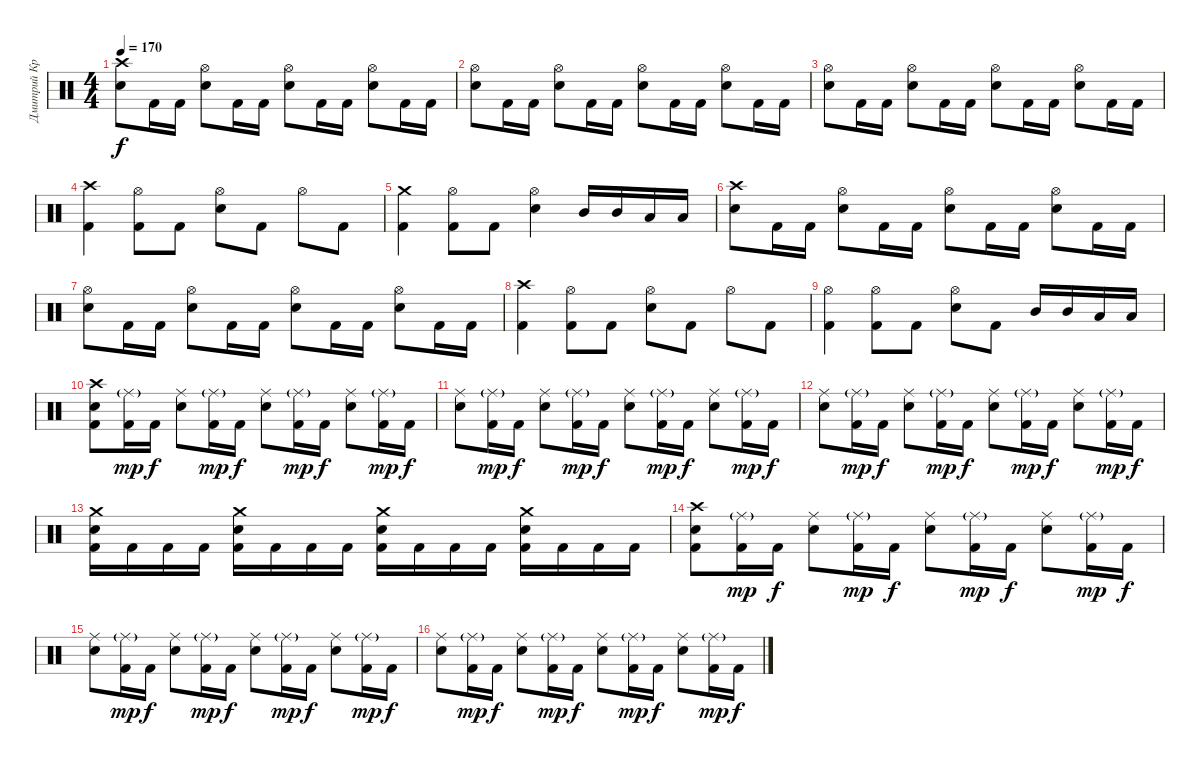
\track ("Дмитрий Кривенков" "Дмитрий Кр") {instrument percussion}
\staff {score}
\articulation defaults
\ts (4 4)
\tempo 170
\clef neutral
\ks c
("Crash high (hit)" "Electric Snare (hit)").8{dy f} "Kick (hit) 2".16 "Kick (hit) 2".16 ("Hi-Hat (open)" "Electric Snare (hit)").8 "Kick (hit) 2".16 "Kick (hit) 2".16 ("Hi-Hat (open)" "Electric Snare (hit)").8 "Kick (hit) 2".16 "Kick (hit) 2".16 ("Hi-Hat (open)" "Electric Snare (hit)").8 "Kick (hit) 2".16 "Kick (hit) 2".16 |
("Hi-Hat (open)" "Electric Snare (hit)").8 "Kick (hit) 2".16 "Kick (hit) 2".16 ("Hi-Hat (open)" "Electric Snare (hit)").8 "Kick (hit) 2".16 "Kick (hit) 2".16 ("Hi-Hat (open)" "Electric Snare (hit)").8 "Kick (hit) 2".16 "Kick (hit) 2".16 ("Hi-Hat (open)" "Electric Snare (hit)").8 "Kick (hit) 2".16 "Kick (hit) 2".16 |
("Hi-Hat (open)" "Electric Snare (hit)").8 "Kick (hit) 2".16 "Kick (hit) 2".16 ("Hi-Hat (open)" "Electric Snare (hit)").8 "Kick (hit) 2".16 "Kick (hit) 2".16 ("Hi-Hat (open)" "Electric Snare (hit)").8 "Kick (hit) 2".16 "Kick (hit) 2".16 ("Hi-Hat (open)" "Electric Snare (hit)").8 "Kick (hit) 2".16 "Kick (hit) 2".16 |
("Crash high (hit)" "Kick (hit) 2").4 ("Hi-Hat (open)" "Kick (hit) 2").8 "Kick (hit) 2".8 ("Hi-Hat (open)" "Electric Snare (hit)").8 "Kick (hit) 2".8 "Hi-Hat (open)".8 "Kick (hit) 2".8 |
("Crash medium (hit)" "Kick (hit) 2").4 ("Hi-Hat (open)" "Kick (hit) 2").8 "Kick (hit) 2".8 ("Hi-Hat (open)" "Electric Snare (hit)").4 "Mid Tom (hit)".16 "Mid Tom (hit)".16 "Low Tom (hit)".16 "Low Tom (hit)".16 |
("Crash high (hit)" "Electric Snare (hit)").8 "Kick (hit) 2".16 "Kick (hit) 2".16 ("Hi-Hat (open)" "Electric Snare (hit)").8 "Kick (hit) 2".16 "Kick (hit) 2".16 ("Hi-Hat (open)" "Electric Snare (hit)").8 "Kick (hit) 2".16 "Kick (hit) 2".16 ("Hi-Hat (open)" "Electric Snare (hit)").8 "Kick (hit) 2".16 "Kick (hit) 2".16 |
("Hi-Hat (open)" "Electric Snare (hit)").8 "Kick (hit) 2".16 "Kick (hit) 2".16 ("Hi-Hat (open)" "Electric Snare (hit)").8 "Kick (hit) 2".16 "Kick (hit) 2".16 ("Hi-Hat (open)" "Electric Snare (hit)").8 "Kick (hit) 2".16 "Kick (hit) 2".16 ("Hi-Hat (open)" "Electric Snare (hit)").8 "Kick (hit) 2".16 "Kick (hit) 2".16 |
("Crash high (hit)" "Kick (hit) 2").4 ("Hi-Hat (open)" "Kick (hit) 2").8 "Kick (hit) 2".8 ("Hi-Hat (open)" "Electric Snare (hit)").8 "Kick (hit) 2".8 "Hi-Hat (open)".8 "Kick (hit) 2".8 |
("Hi-Hat (open)" "Kick (hit) 2").4 ("Hi-Hat (open)" "Kick (hit) 2").8 "Kick (hit) 2".8 ("Hi-Hat (open)" "Electric Snare (hit)").8 "Kick (hit) 2".8 "Mid Tom (hit)".16 "Mid Tom (hit)".16 "Low Tom (hit)".16 "Low Tom (hit)".16 |
("Crash high (hit)" "Electric Snare (hit)" "Kick (hit) 2").8 ("Ride (middle)"{g} "Kick (hit) 2").16{dy mp} "Kick (hit) 2".16{dy f} ("Ride (middle)" "Electric Snare (hit)").8 ("Ride (middle)"{g} "Kick (hit) 2").16{dy mp} "Kick (hit) 2".16{dy f} ("Ride (middle)" "Electric Snare (hit)").8 ("Ride (middle)"{g} "Kick (hit) 2").16{dy mp} "Kick (hit) 2".16{dy f} ("Ride (middle)" "Electric Snare (hit)").8 ("Ride (middle)"{g} "Kick (hit) 2").16{dy mp} "Kick (hit) 2".16{dy f} |
("Ride (middle)" "Electric Snare (hit)").8 ("Ride (middle)"{g} "Kick (hit) 2").16{dy mp} "Kick (hit) 2".16{dy f} ("Ride (middle)" "Electric Snare (hit)").8 ("Ride (middle)"{g} "Kick (hit) 2").16{dy mp} "Kick (hit) 2".16{dy f} ("Ride (middle)" "Electric Snare (hit)").8 ("Ride (middle)"{g} "Kick (hit) 2").16{dy mp} "Kick (hit) 2".16{dy f} ("Ride (middle)" "Electric Snare (hit)").8 ("Ride (middle)"{g} "Kick (hit) 2").16{dy mp} "Kick (hit) 2".16{dy f} |
("Ride (middle)" "Electric Snare (hit)").8 ("Ride (middle)"{g} "Kick (hit) 2").16{dy mp} "Kick (hit) 2".16{dy f} ("Ride (middle)" "Electric Snare (hit)").8 ("Ride (middle)"{g} "Kick (hit) 2").16{dy mp} "Kick (hit) 2".16{dy f} ("Ride (middle)" "Electric Snare (hit)").8 ("Ride (middle)"{g} "Kick (hit) 2").16{dy mp} "Kick (hit) 2".16{dy f} ("Ride (middle)" "Electric Snare (hit)").8 ("Ride (middle)"{g} "Kick (hit) 2").16{dy mp} "Kick (hit) 2".16{dy f} |
("Crash medium (hit)" "Electric Snare (hit)" "Kick (hit) 2").16 "Kick (hit) 2".16 "Kick (hit) 2".16 "Kick (hit) 2".16 ("Crash medium (hit)" "Electric Snare (hit)" "Kick (hit) 2").16 "Kick (hit) 2".16 "Kick (hit) 2".16 "Kick (hit) 2".16 ("Crash medium (hit)" "Electric Snare (hit)" "Kick (hit) 2").16 "Kick (hit) 2".16 "Kick (hit) 2".16 "Kick (hit) 2".16 ("Crash medium (hit)" "Electric Snare (hit)" "Kick (hit) 2").16 "Kick (hit) 2".16 "Kick (hit) 2".16 "Kick (hit) 2".16 |
("Crash high (hit)" "Electric Snare (hit)" "Kick (hit) 2").8 ("Ride (middle)"{g} "Kick (hit) 2").16{dy mp} "Kick (hit) 2".16{dy f} ("Ride (middle)" "Electric Snare (hit)").8 ("Ride (middle)"{g} "Kick (hit) 2").16{dy mp} "Kick (hit) 2".16{dy f} ("Ride (middle)" "Electric Snare (hit)").8 ("Ride (middle)"{g} "Kick (hit) 2").16{dy mp} "Kick (hit) 2".16{dy f} ("Ride (middle)" "Electric Snare (hit)").8 ("Ride (middle)"{g} "Kick (hit) 2").16{dy mp} "Kick (hit) 2".16{dy f} |
("Ride (middle)" "Electric Snare (hit)").8 ("Ride (middle)"{g} "Kick (hit) 2").16{dy mp} "Kick (hit) 2".16{dy f} ("Ride (middle)" "Electric Snare (hit)").8 ("Ride (middle)"{g} "Kick (hit) 2").16{dy mp} "Kick (hit) 2".16{dy f} ("Ride (middle)" "Electric Snare (hit)").8 ("Ride (middle)"{g} "Kick (hit) 2").16{dy mp} "Kick (hit) 2".16{dy f} ("Ride (middle)" "Electric Snare (hit)").8 ("Ride (middle)"{g} "Kick (hit) 2").16{dy mp} "Kick (hit) 2".16{dy f} |
("Ride (middle)" "Electric Snare (hit)").8 ("Ride (middle)"{g} "Kick (hit) 2").16{dy mp} "Kick (hit) 2".16{dy f} ("Ride (middle)" "Electric Snare (hit)").8 ("Ride (middle)"{g} "Kick (hit) 2").16{dy mp} "Kick (hit) 2".16{dy f} ("Ride (middle)" "Electric Snare (hit)").8 ("Ride (middle)"{g} "Kick (hit) 2").16{dy mp} "Kick (hit) 2".16{dy f} ("Ride (middle)" "Electric Snare (hit)").8 ("Ride (middle)"{g} "Kick (hit) 2").16{dy mp} "Kick (hit) 2".16{dy f}
